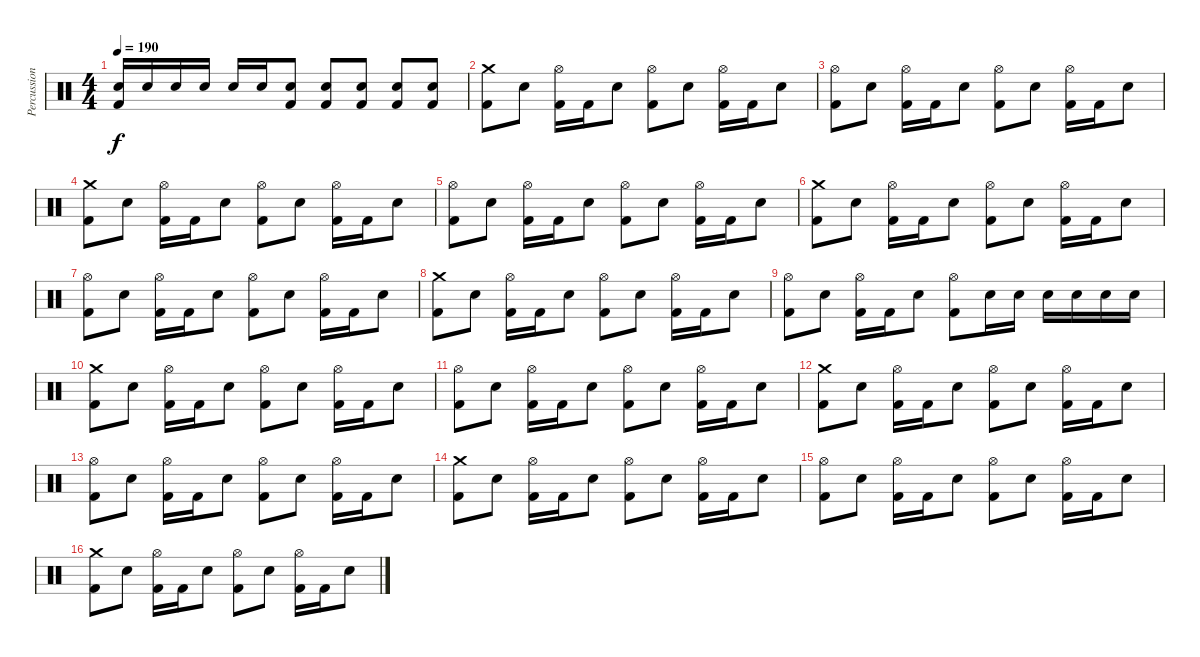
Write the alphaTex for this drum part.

\track ("Percussion" "Percussion") {instrument percussion}
\staff {score}
\articulation defaults
\ts (4 4)
\tempo 190
\clef neutral
\ks c
("Snare (hit) 2" "Kick (hit) 2").16{dy f} "Snare (hit) 2".16 "Snare (hit) 2".16 "Snare (hit) 2".16 "Snare (hit) 2".16 "Snare (hit) 2".16 ("Snare (hit) 2" "Kick (hit) 2").8 ("Snare (hit) 2" "Kick (hit) 2").8 ("Snare (hit) 2" "Kick (hit) 2").8 ("Snare (hit) 2" "Kick (hit) 2").8 ("Snare (hit) 2" "Kick (hit) 2").8 |
("Crash medium (hit)" "Kick (hit) 2").8 "Snare (hit) 2".8 ("Hi-Hat (open)" "Kick (hit) 2").16 "Kick (hit) 2".16 "Snare (hit) 2".8 ("Hi-Hat (open)" "Kick (hit) 2").8 "Snare (hit) 2".8 ("Hi-Hat (open)" "Kick (hit) 2").16 "Kick (hit) 2".16 "Snare (hit) 2".8 |
("Hi-Hat (open)" "Kick (hit) 2").8 "Snare (hit) 2".8 ("Hi-Hat (open)" "Kick (hit) 2").16 "Kick (hit) 2".16 "Snare (hit) 2".8 ("Hi-Hat (open)" "Kick (hit) 2").8 "Snare (hit) 2".8 ("Hi-Hat (open)" "Kick (hit) 2").16 "Kick (hit) 2".16 "Snare (hit) 2".8 |
("Crash medium (hit)" "Kick (hit) 2").8 "Snare (hit) 2".8 ("Hi-Hat (open)" "Kick (hit) 2").16 "Kick (hit) 2".16 "Snare (hit) 2".8 ("Hi-Hat (open)" "Kick (hit) 2").8 "Snare (hit) 2".8 ("Hi-Hat (open)" "Kick (hit) 2").16 "Kick (hit) 2".16 "Snare (hit) 2".8 |
("Hi-Hat (open)" "Kick (hit) 2").8 "Snare (hit) 2".8 ("Hi-Hat (open)" "Kick (hit) 2").16 "Kick (hit) 2".16 "Snare (hit) 2".8 ("Hi-Hat (open)" "Kick (hit) 2").8 "Snare (hit) 2".8 ("Hi-Hat (open)" "Kick (hit) 2").16 "Kick (hit) 2".16 "Snare (hit) 2".8 |
("Crash medium (hit)" "Kick (hit) 2").8 "Snare (hit) 2".8 ("Hi-Hat (open)" "Kick (hit) 2").16 "Kick (hit) 2".16 "Snare (hit) 2".8 ("Hi-Hat (open)" "Kick (hit) 2").8 "Snare (hit) 2".8 ("Hi-Hat (open)" "Kick (hit) 2").16 "Kick (hit) 2".16 "Snare (hit) 2".8 |
("Hi-Hat (open)" "Kick (hit) 2").8 "Snare (hit) 2".8 ("Hi-Hat (open)" "Kick (hit) 2").16 "Kick (hit) 2".16 "Snare (hit) 2".8 ("Hi-Hat (open)" "Kick (hit) 2").8 "Snare (hit) 2".8 ("Hi-Hat (open)" "Kick (hit) 2").16 "Kick (hit) 2".16 "Snare (hit) 2".8 |
("Crash medium (hit)" "Kick (hit) 2").8 "Snare (hit) 2".8 ("Hi-Hat (open)" "Kick (hit) 2").16 "Kick (hit) 2".16 "Snare (hit) 2".8 ("Hi-Hat (open)" "Kick (hit) 2").8 "Snare (hit) 2".8 ("Hi-Hat (open)" "Kick (hit) 2").16 "Kick (hit) 2".16 "Snare (hit) 2".8 |
("Hi-Hat (open)" "Kick (hit) 2").8 "Snare (hit) 2".8 ("Hi-Hat (open)" "Kick (hit) 2").16 "Kick (hit) 2".16 "Snare (hit) 2".8 ("Hi-Hat (open)" "Kick (hit) 2").8 "Snare (hit) 2".16 "Snare (hit) 2".16 "Snare (hit) 2".16 "Snare (hit) 2".16 "Snare (hit) 2".16 "Snare (hit) 2".16 |
("Crash medium (hit)" "Kick (hit) 2").8 "Snare (hit) 2".8 ("Hi-Hat (open)" "Kick (hit) 2").16 "Kick (hit) 2".16 "Snare (hit) 2".8 ("Hi-Hat (open)" "Kick (hit) 2").8 "Snare (hit) 2".8 ("Hi-Hat (open)" "Kick (hit) 2").16 "Kick (hit) 2".16 "Snare (hit) 2".8 |
("Hi-Hat (open)" "Kick (hit) 2").8 "Snare (hit) 2".8 ("Hi-Hat (open)" "Kick (hit) 2").16 "Kick (hit) 2".16 "Snare (hit) 2".8 ("Hi-Hat (open)" "Kick (hit) 2").8 "Snare (hit) 2".8 ("Hi-Hat (open)" "Kick (hit) 2").16 "Kick (hit) 2".16 "Snare (hit) 2".8 |
("Crash medium (hit)" "Kick (hit) 2").8 "Snare (hit) 2".8 ("Hi-Hat (open)" "Kick (hit) 2").16 "Kick (hit) 2".16 "Snare (hit) 2".8 ("Hi-Hat (open)" "Kick (hit) 2").8 "Snare (hit) 2".8 ("Hi-Hat (open)" "Kick (hit) 2").16 "Kick (hit) 2".16 "Snare (hit) 2".8 |
("Hi-Hat (open)" "Kick (hit) 2").8 "Snare (hit) 2".8 ("Hi-Hat (open)" "Kick (hit) 2").16 "Kick (hit) 2".16 "Snare (hit) 2".8 ("Hi-Hat (open)" "Kick (hit) 2").8 "Snare (hit) 2".8 ("Hi-Hat (open)" "Kick (hit) 2").16 "Kick (hit) 2".16 "Snare (hit) 2".8 |
("Crash medium (hit)" "Kick (hit) 2").8 "Snare (hit) 2".8 ("Hi-Hat (open)" "Kick (hit) 2").16 "Kick (hit) 2".16 "Snare (hit) 2".8 ("Hi-Hat (open)" "Kick (hit) 2").8 "Snare (hit) 2".8 ("Hi-Hat (open)" "Kick (hit) 2").16 "Kick (hit) 2".16 "Snare (hit) 2".8 |
("Hi-Hat (open)" "Kick (hit) 2").8 "Snare (hit) 2".8 ("Hi-Hat (open)" "Kick (hit) 2").16 "Kick (hit) 2".16 "Snare (hit) 2".8 ("Hi-Hat (open)" "Kick (hit) 2").8 "Snare (hit) 2".8 ("Hi-Hat (open)" "Kick (hit) 2").16 "Kick (hit) 2".16 "Snare (hit) 2".8 |
("Crash medium (hit)" "Kick (hit) 2").8 "Snare (hit) 2".8 ("Hi-Hat (open)" "Kick (hit) 2").16 "Kick (hit) 2".16 "Snare (hit) 2".8 ("Hi-Hat (open)" "Kick (hit) 2").8 "Snare (hit) 2".8 ("Hi-Hat (open)" "Kick (hit) 2").16 "Kick (hit) 2".16 "Snare (hit) 2".8
